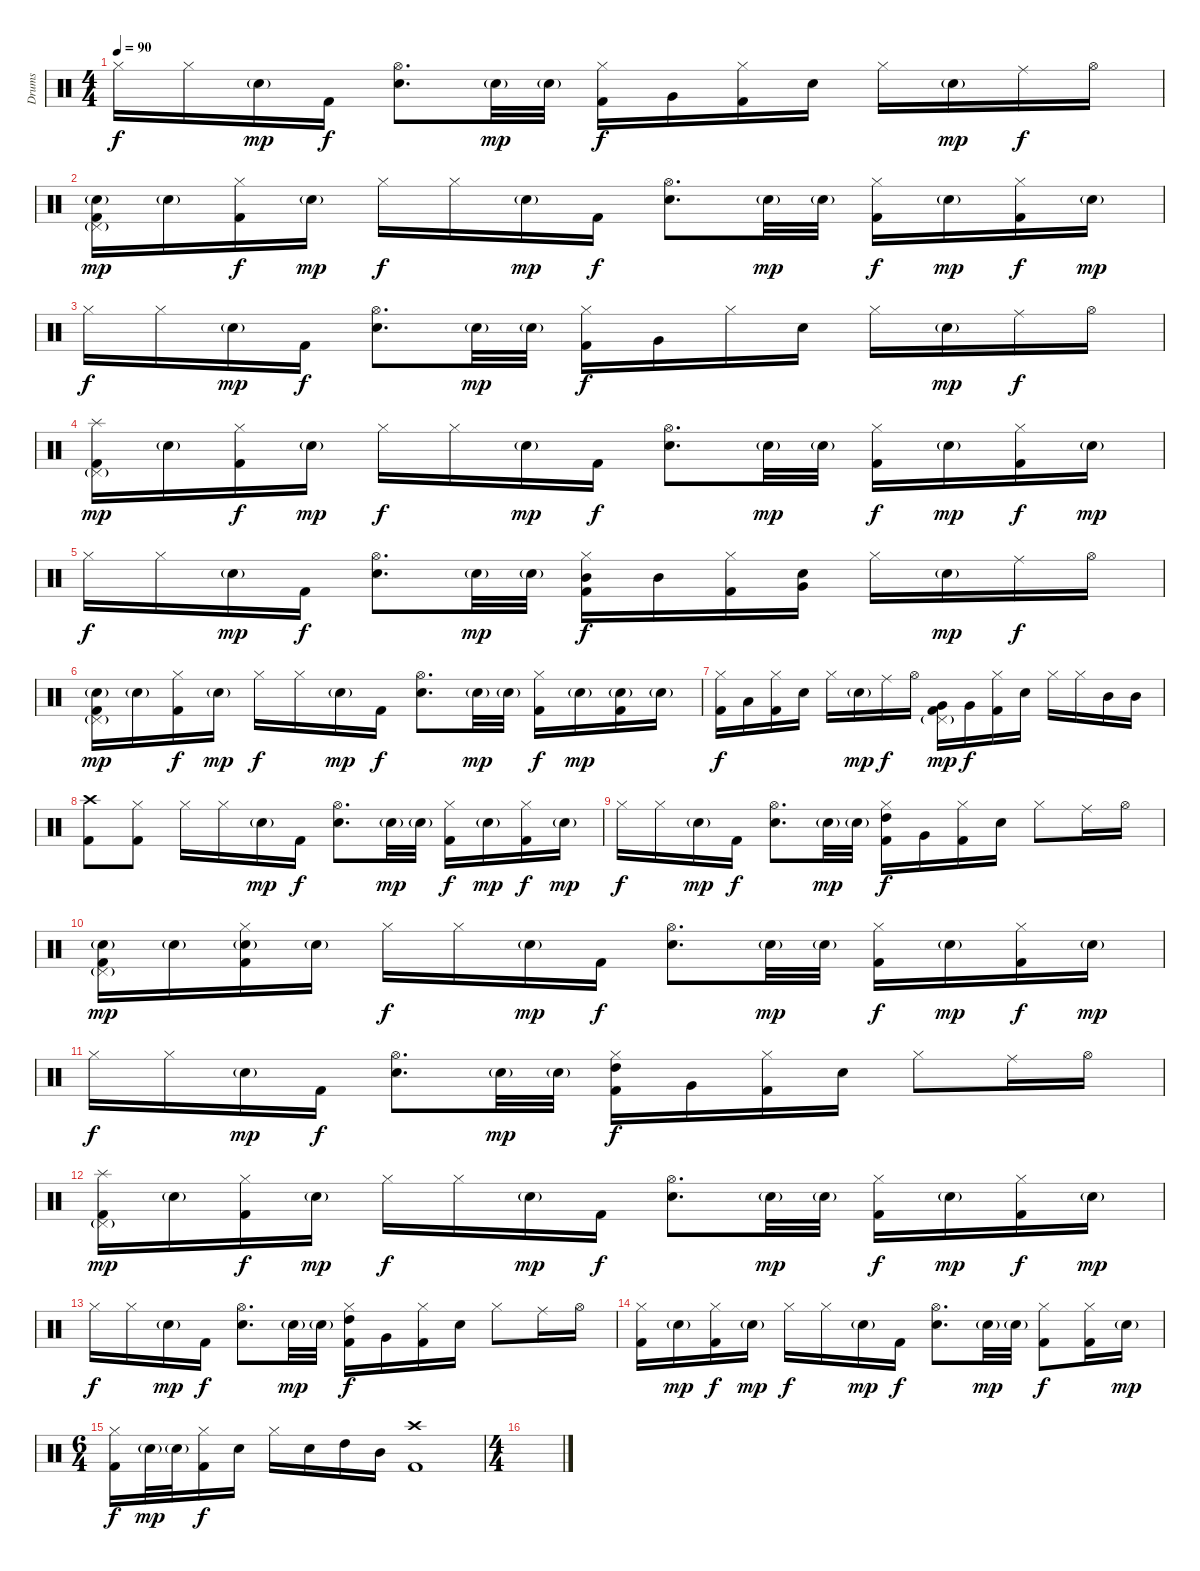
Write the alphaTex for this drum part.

\track ("Drums" "Drums") {instrument percussion}
\staff {score}
\articulation defaults
\ts (4 4)
\tempo 90
\clef neutral
\ks c "Hi-Hat (closed)".16{dy f} "Hi-Hat (closed)".16 "Electric Snare (hit)"{g}.16{dy mp} "Kick (hit) 2".16{dy f}
("Hi-Hat (open)" "Electric Snare (hit)").8{d} "Electric Snare (hit)"{g}.32{dy mp} "Electric Snare (hit)"{g}.32 ("Hi-Hat (closed)" "Kick (hit) 2").16{dy f} "Very Low Tom (hit)".16 ("Hi-Hat (closed)" "Kick (hit) 2").16 "Electric Snare (hit)".16 "Hi-Hat (closed)".16 "Electric Snare (hit)"{g}.16{dy mp} "Ride (middle)".16{dy f} "Hi-Hat (open)".16 |
("Pedal Hi-Hat (hit)"{g} "Electric Snare (hit)"{g} "Kick (hit) 2").16{dy mp} "Electric Snare (hit)"{g}.16 ("Hi-Hat (closed)" "Kick (hit) 2").16{dy f} "Electric Snare (hit)"{g}.16{dy mp} "Hi-Hat (closed)".16{dy f} "Hi-Hat (closed)".16 "Electric Snare (hit)"{g}.16{dy mp} "Kick (hit) 2".16{dy f} ("Electric Snare (hit)" "Hi-Hat (open)").8{d} "Electric Snare (hit)"{g}.32{dy mp} "Electric Snare (hit)"{g}.32 ("Hi-Hat (closed)" "Kick (hit) 2").16{dy f} "Electric Snare (hit)"{g}.16{dy mp} ("Hi-Hat (closed)" "Kick (hit) 2").16{dy f} "Electric Snare (hit)"{g}.16{dy mp} |
"Hi-Hat (closed)".16{dy f} "Hi-Hat (closed)".16 "Electric Snare (hit)"{g}.16{dy mp} "Kick (hit) 2".16{dy f} ("Hi-Hat (open)" "Electric Snare (hit)").8{d} "Electric Snare (hit)"{g}.32{dy mp} "Electric Snare (hit)"{g}.32 ("Hi-Hat (closed)" "Kick (hit) 2").16{dy f} "Very Low Tom (hit)".16 "Hi-Hat (closed)".16 "Electric Snare (hit)".16 "Hi-Hat (closed)".16 "Electric Snare (hit)"{g}.16{dy mp} "Ride (middle)".16{dy f} "Hi-Hat (open)".16 |
("Splash (hit)" "Pedal Hi-Hat (hit)"{g} "Kick (hit) 2").16{dy mp} "Electric Snare (hit)"{g}.16 ("Hi-Hat (closed)" "Kick (hit) 2").16{dy f} "Electric Snare (hit)"{g}.16{dy mp} "Hi-Hat (closed)".16{dy f} "Hi-Hat (closed)".16 "Electric Snare (hit)"{g}.16{dy mp} "Kick (hit) 2".16{dy f} ("Hi-Hat (open)" "Electric Snare (hit)").8{d} "Electric Snare (hit)"{g}.32{dy mp} "Electric Snare (hit)"{g}.32 ("Hi-Hat (closed)" "Kick (hit) 2").16{dy f} "Electric Snare (hit)"{g}.16{dy mp} ("Hi-Hat (closed)" "Kick (hit) 2").16{dy f} "Electric Snare (hit)"{g}.16{dy mp} |
"Hi-Hat (closed)".16{dy f} "Hi-Hat (closed)".16 "Electric Snare (hit)"{g}.16{dy mp} "Kick (hit) 2".16{dy f} ("Hi-Hat (open)" "Electric Snare (hit)").8{d} "Electric Snare (hit)"{g}.32{dy mp} "Electric Snare (hit)"{g}.32 ("Hi-Hat (closed)" "Mid Tom (hit)" "Kick (hit) 2").16{dy f} "Mid Tom (hit)".16 ("Hi-Hat (closed)" "Kick (hit) 2").16 ("Electric Snare (hit)" "Very Low Tom (hit)").16 "Hi-Hat (closed)".16 "Electric Snare (hit)"{g}.16{dy mp} "Ride (middle)".16{dy f} "Hi-Hat (open)".16 |
("Electric Snare (hit)"{g} "Pedal Hi-Hat (hit)"{g} "Kick (hit) 2").16{dy mp} "Electric Snare (hit)"{g}.16 ("Hi-Hat (closed)" "Kick (hit) 2").16{dy f} "Electric Snare (hit)"{g}.16{dy mp} "Hi-Hat (closed)".16{dy f} "Hi-Hat (closed)".16 "Electric Snare (hit)"{g}.16{dy mp} "Kick (hit) 2".16{dy f} ("Hi-Hat (open)" "Electric Snare (hit)").8{d} "Electric Snare (hit)"{g}.32{dy mp} "Electric Snare (hit)"{g}.32 ("Hi-Hat (closed)" "Kick (hit) 2").16{dy f} "Electric Snare (hit)"{g}.16{dy mp} ("Electric Snare (hit)"{g} "Kick (hit) 2").16 "Electric Snare (hit)"{g}.16 |
("Hi-Hat (closed)" "Kick (hit) 2").16{dy f} "Low Tom (hit)".16 ("Hi-Hat (closed)" "Kick (hit) 2").16 "Electric Snare (hit)".16 "Hi-Hat (closed)".16 "Electric Snare (hit)"{g}.16{dy mp} "Ride (middle)".16{dy f} "Hi-Hat (open)".16 ("Pedal Hi-Hat (hit)"{g} "Very Low Tom (hit)" "Kick (hit) 2").16{dy mp} "Very Low Tom (hit)".16{dy f} ("Hi-Hat (closed)" "Kick (hit) 2").16 "Electric Snare (hit)".16 "Hi-Hat (closed)".16 "Hi-Hat (closed)".16 "Mid Tom (hit)".16 "Mid Tom (hit)".16 |
("Crash high (hit)" "Kick (hit) 2").8 ("Hi-Hat (closed)" "Kick (hit) 2").8 "Hi-Hat (closed)".16 "Hi-Hat (closed)".16 "Electric Snare (hit)"{g}.16{dy mp} "Kick (hit) 2".16{dy f} ("Electric Snare (hit)" "Hi-Hat (open)").8{d} "Electric Snare (hit)"{g}.32{dy mp} "Electric Snare (hit)"{g}.32 ("Hi-Hat (closed)" "Kick (hit) 2").16{dy f} "Electric Snare (hit)"{g}.16{dy mp} ("Hi-Hat (closed)" "Kick (hit) 2").16{dy f} "Electric Snare (hit)"{g}.16{dy mp} |
"Hi-Hat (closed)".16{dy f} "Hi-Hat (closed)".16 "Electric Snare (hit)"{g}.16{dy mp} "Kick (hit) 2".16{dy f} ("Hi-Hat (open)" "Electric Snare (hit)").8{d} "Electric Snare (hit)"{g}.32{dy mp} "Electric Snare (hit)"{g}.32 ("Kick (hit) 2" "Hi-Hat (closed)" "High Tom (hit)").16{dy f} "Very Low Tom (hit)".16 ("Hi-Hat (closed)" "Kick (hit) 2").16 "Electric Snare (hit)".16 "Hi-Hat (closed)".8 "Ride (middle)".16 "Hi-Hat (open)".16 |
("Electric Snare (hit)"{g} "Pedal Hi-Hat (hit)"{g} "Kick (hit) 2").16{dy mp} "Electric Snare (hit)"{g}.16 ("Electric Snare (hit)"{g} "Kick (hit) 2" "Hi-Hat (closed)").16 "Electric Snare (hit)"{g}.16 "Hi-Hat (closed)".16{dy f} "Hi-Hat (closed)".16 "Electric Snare (hit)"{g}.16{dy mp} "Kick (hit) 2".16{dy f} ("Electric Snare (hit)" "Hi-Hat (open)").8{d} "Electric Snare (hit)"{g}.32{dy mp} "Electric Snare (hit)"{g}.32 ("Hi-Hat (closed)" "Kick (hit) 2").16{dy f} "Electric Snare (hit)"{g}.16{dy mp} ("Hi-Hat (closed)" "Kick (hit) 2").16{dy f} "Electric Snare (hit)"{g}.16{dy mp} |
"Hi-Hat (closed)".16{dy f} "Hi-Hat (closed)".16 "Electric Snare (hit)"{g}.16{dy mp} "Kick (hit) 2".16{dy f} ("Electric Snare (hit)" "Hi-Hat (open)").8{d} "Electric Snare (hit)"{g}.32{dy mp} "Electric Snare (hit)"{g}.32 ("Kick (hit) 2" "Hi-Hat (closed)" "High Tom (hit)").16{dy f} "Very Low Tom (hit)".16 ("Hi-Hat (closed)" "Kick (hit) 2").16 "Electric Snare (hit)".16 "Hi-Hat (closed)".8 "Ride (middle)".16 "Hi-Hat (open)".16 |
("Splash (hit)" "Pedal Hi-Hat (hit)"{g} "Kick (hit) 2").16{dy mp} "Electric Snare (hit)"{g}.16 ("Kick (hit) 2" "Hi-Hat (closed)").16{dy f} "Electric Snare (hit)"{g}.16{dy mp} "Hi-Hat (closed)".16{dy f} "Hi-Hat (closed)".16 "Electric Snare (hit)"{g}.16{dy mp} "Kick (hit) 2".16{dy f} ("Electric Snare (hit)" "Hi-Hat (open)").8{d} "Electric Snare (hit)"{g}.32{dy mp} "Electric Snare (hit)"{g}.32 ("Hi-Hat (closed)" "Kick (hit) 2").16{dy f} "Electric Snare (hit)"{g}.16{dy mp} ("Hi-Hat (closed)" "Kick (hit) 2").16{dy f} "Electric Snare (hit)"{g}.16{dy mp} |
"Hi-Hat (closed)".16{dy f} "Hi-Hat (closed)".16 "Electric Snare (hit)"{g}.16{dy mp} "Kick (hit) 2".16{dy f} ("Electric Snare (hit)" "Hi-Hat (open)").8{d} "Electric Snare (hit)"{g}.32{dy mp} "Electric Snare (hit)"{g}.32 ("Kick (hit) 2" "Hi-Hat (closed)" "High Tom (hit)").16{dy f} "Very Low Tom (hit)".16 ("Hi-Hat (closed)" "Kick (hit) 2").16 "Electric Snare (hit)".16 "Hi-Hat (closed)".8 "Ride (middle)".16 "Hi-Hat (open)".16 |
("Hi-Hat (closed)" "Kick (hit) 2").16 "Electric Snare (hit)"{g}.16{dy mp} ("Kick (hit) 2" "Hi-Hat (closed)").16{dy f} "Electric Snare (hit)"{g}.16{dy mp} "Hi-Hat (closed)".16{dy f} "Hi-Hat (closed)".16 "Electric Snare (hit)"{g}.16{dy mp} "Kick (hit) 2".16{dy f} ("Electric Snare (hit)" "Hi-Hat (open)").8{d} "Electric Snare (hit)"{g}.32{dy mp} "Electric Snare (hit)"{g}.32 ("Hi-Hat (closed)" "Kick (hit) 2").8{dy f} ("Hi-Hat (closed)" "Kick (hit) 2").16 "Electric Snare (hit)"{g}.16{dy mp} |
\ts (6 4)
("Hi-Hat (closed)" "Kick (hit) 2").16{dy f} "Electric Snare (hit)"{g}.32{dy mp} "Electric Snare (hit)"{g}.32 ("Hi-Hat (closed)" "Kick (hit) 2").16{dy f} "Electric Snare (hit)".16 "Hi-Hat (closed)".16 "Electric Snare (hit)".16 "High Tom (hit)".16 "Mid Tom (hit)".16 ("Crash high (hit)" "Kick (hit) 2").1 |
\ts (4 4)
